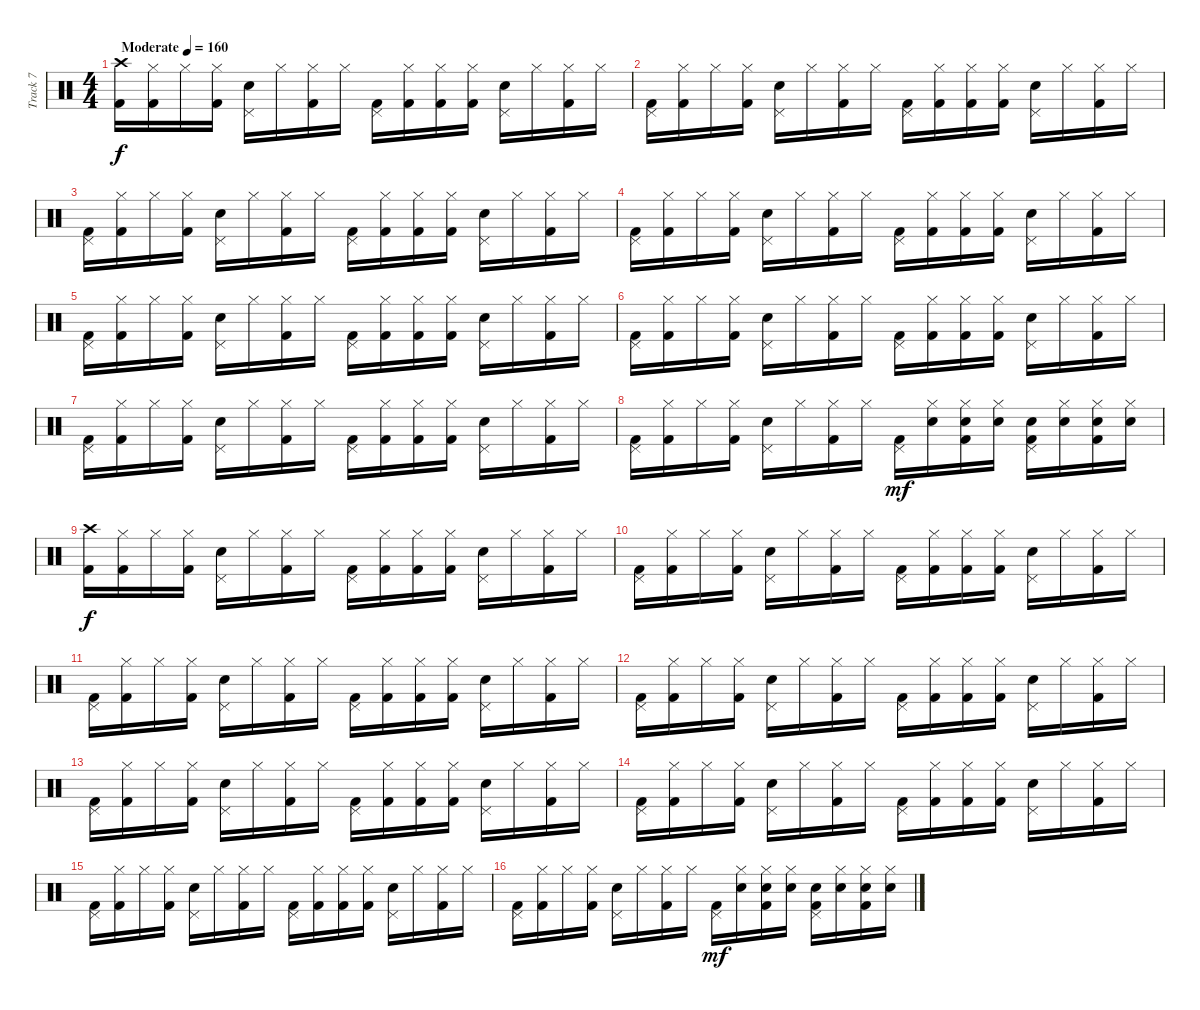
\track ("Track 7" "Track 7") {instrument percussion}
\staff {score}
\articulation defaults
\ts (4 4)
\tempo (160 "Moderate")
\clef neutral
\ks c
("Crash high (hit)" "Kick (hit) 2").16{dy f} ("Hi-Hat (closed)" "Kick (hit) 2").16 "Hi-Hat (closed)".16 ("Hi-Hat (closed)" "Kick (hit) 2").16 ("Pedal Hi-Hat (hit)" "Snare (hit) 2").16 "Hi-Hat (closed)".16 ("Hi-Hat (closed)" "Kick (hit) 2").16 "Hi-Hat (closed)".16 ("Pedal Hi-Hat (hit)" "Kick (hit) 2").16 ("Hi-Hat (closed)" "Kick (hit) 2").16 ("Hi-Hat (closed)" "Kick (hit) 2").16 ("Hi-Hat (closed)" "Kick (hit) 2").16 ("Pedal Hi-Hat (hit)" "Snare (hit) 2").16 "Hi-Hat (closed)".16 ("Hi-Hat (closed)" "Kick (hit) 2").16 "Hi-Hat (closed)".16 |
("Pedal Hi-Hat (hit)" "Kick (hit) 2").16 ("Hi-Hat (closed)" "Kick (hit) 2").16 "Hi-Hat (closed)".16 ("Hi-Hat (closed)" "Kick (hit) 2").16 ("Pedal Hi-Hat (hit)" "Snare (hit) 2").16 "Hi-Hat (closed)".16 ("Hi-Hat (closed)" "Kick (hit) 2").16 "Hi-Hat (closed)".16 ("Pedal Hi-Hat (hit)" "Kick (hit) 2").16 ("Hi-Hat (closed)" "Kick (hit) 2").16 ("Hi-Hat (closed)" "Kick (hit) 2").16 ("Hi-Hat (closed)" "Kick (hit) 2").16 ("Pedal Hi-Hat (hit)" "Snare (hit) 2").16 "Hi-Hat (closed)".16 ("Hi-Hat (closed)" "Kick (hit) 2").16 "Hi-Hat (closed)".16 |
("Pedal Hi-Hat (hit)" "Kick (hit) 2").16 ("Hi-Hat (closed)" "Kick (hit) 2").16 "Hi-Hat (closed)".16 ("Hi-Hat (closed)" "Kick (hit) 2").16 ("Pedal Hi-Hat (hit)" "Snare (hit) 2").16 "Hi-Hat (closed)".16 ("Hi-Hat (closed)" "Kick (hit) 2").16 "Hi-Hat (closed)".16 ("Pedal Hi-Hat (hit)" "Kick (hit) 2").16 ("Hi-Hat (closed)" "Kick (hit) 2").16 ("Hi-Hat (closed)" "Kick (hit) 2").16 ("Hi-Hat (closed)" "Kick (hit) 2").16 ("Pedal Hi-Hat (hit)" "Snare (hit) 2").16 "Hi-Hat (closed)".16 ("Hi-Hat (closed)" "Kick (hit) 2").16 "Hi-Hat (closed)".16 |
("Pedal Hi-Hat (hit)" "Kick (hit) 2").16 ("Hi-Hat (closed)" "Kick (hit) 2").16 "Hi-Hat (closed)".16 ("Hi-Hat (closed)" "Kick (hit) 2").16 ("Pedal Hi-Hat (hit)" "Snare (hit) 2").16 "Hi-Hat (closed)".16 ("Hi-Hat (closed)" "Kick (hit) 2").16 "Hi-Hat (closed)".16 ("Pedal Hi-Hat (hit)" "Kick (hit) 2").16 ("Hi-Hat (closed)" "Kick (hit) 2").16 ("Hi-Hat (closed)" "Kick (hit) 2").16 ("Hi-Hat (closed)" "Kick (hit) 2").16 ("Pedal Hi-Hat (hit)" "Snare (hit) 2").16 "Hi-Hat (closed)".16 ("Hi-Hat (closed)" "Kick (hit) 2").16 "Hi-Hat (closed)".16 |
("Pedal Hi-Hat (hit)" "Kick (hit) 2").16 ("Hi-Hat (closed)" "Kick (hit) 2").16 "Hi-Hat (closed)".16 ("Hi-Hat (closed)" "Kick (hit) 2").16 ("Pedal Hi-Hat (hit)" "Snare (hit) 2").16 "Hi-Hat (closed)".16 ("Hi-Hat (closed)" "Kick (hit) 2").16 "Hi-Hat (closed)".16 ("Pedal Hi-Hat (hit)" "Kick (hit) 2").16 ("Hi-Hat (closed)" "Kick (hit) 2").16 ("Hi-Hat (closed)" "Kick (hit) 2").16 ("Hi-Hat (closed)" "Kick (hit) 2").16 ("Pedal Hi-Hat (hit)" "Snare (hit) 2").16 "Hi-Hat (closed)".16 ("Hi-Hat (closed)" "Kick (hit) 2").16 "Hi-Hat (closed)".16 |
("Pedal Hi-Hat (hit)" "Kick (hit) 2").16 ("Hi-Hat (closed)" "Kick (hit) 2").16 "Hi-Hat (closed)".16 ("Hi-Hat (closed)" "Kick (hit) 2").16 ("Pedal Hi-Hat (hit)" "Snare (hit) 2").16 "Hi-Hat (closed)".16 ("Hi-Hat (closed)" "Kick (hit) 2").16 "Hi-Hat (closed)".16 ("Pedal Hi-Hat (hit)" "Kick (hit) 2").16 ("Hi-Hat (closed)" "Kick (hit) 2").16 ("Hi-Hat (closed)" "Kick (hit) 2").16 ("Hi-Hat (closed)" "Kick (hit) 2").16 ("Pedal Hi-Hat (hit)" "Snare (hit) 2").16 "Hi-Hat (closed)".16 ("Hi-Hat (closed)" "Kick (hit) 2").16 "Hi-Hat (closed)".16 |
("Pedal Hi-Hat (hit)" "Kick (hit) 2").16 ("Hi-Hat (closed)" "Kick (hit) 2").16 "Hi-Hat (closed)".16 ("Hi-Hat (closed)" "Kick (hit) 2").16 ("Pedal Hi-Hat (hit)" "Snare (hit) 2").16 "Hi-Hat (closed)".16 ("Hi-Hat (closed)" "Kick (hit) 2").16 "Hi-Hat (closed)".16 ("Pedal Hi-Hat (hit)" "Kick (hit) 2").16 ("Hi-Hat (closed)" "Kick (hit) 2").16 ("Hi-Hat (closed)" "Kick (hit) 2").16 ("Hi-Hat (closed)" "Kick (hit) 2").16 ("Pedal Hi-Hat (hit)" "Snare (hit) 2").16 "Hi-Hat (closed)".16 ("Hi-Hat (closed)" "Kick (hit) 2").16 "Hi-Hat (closed)".16 |
("Pedal Hi-Hat (hit)" "Kick (hit) 2").16 ("Hi-Hat (closed)" "Kick (hit) 2").16 "Hi-Hat (closed)".16 ("Hi-Hat (closed)" "Kick (hit) 2").16 ("Pedal Hi-Hat (hit)" "Snare (hit) 2").16 "Hi-Hat (closed)".16 ("Hi-Hat (closed)" "Kick (hit) 2").16 "Hi-Hat (closed)".16 ("Pedal Hi-Hat (hit)" "Kick (hit) 2").16{dy mf} ("Hi-Hat (closed)" "Snare (hit) 2").16 ("Hi-Hat (closed)" "Snare (hit) 2" "Kick (hit) 2").16 ("Hi-Hat (closed)" "Snare (hit) 2").16 ("Pedal Hi-Hat (hit)" "Snare (hit) 2" "Kick (hit) 2").16 ("Hi-Hat (closed)" "Snare (hit) 2").16 ("Hi-Hat (closed)" "Snare (hit) 2" "Kick (hit) 2").16 ("Hi-Hat (closed)" "Snare (hit) 2").16 |
("Crash high (hit)" "Kick (hit) 2").16{dy f} ("Hi-Hat (closed)" "Kick (hit) 2").16 "Hi-Hat (closed)".16 ("Hi-Hat (closed)" "Kick (hit) 2").16 ("Pedal Hi-Hat (hit)" "Snare (hit) 2").16 "Hi-Hat (closed)".16 ("Hi-Hat (closed)" "Kick (hit) 2").16 "Hi-Hat (closed)".16 ("Pedal Hi-Hat (hit)" "Kick (hit) 2").16 ("Hi-Hat (closed)" "Kick (hit) 2").16 ("Hi-Hat (closed)" "Kick (hit) 2").16 ("Hi-Hat (closed)" "Kick (hit) 2").16 ("Pedal Hi-Hat (hit)" "Snare (hit) 2").16 "Hi-Hat (closed)".16 ("Hi-Hat (closed)" "Kick (hit) 2").16 "Hi-Hat (closed)".16 |
("Pedal Hi-Hat (hit)" "Kick (hit) 2").16 ("Hi-Hat (closed)" "Kick (hit) 2").16 "Hi-Hat (closed)".16 ("Hi-Hat (closed)" "Kick (hit) 2").16 ("Pedal Hi-Hat (hit)" "Snare (hit) 2").16 "Hi-Hat (closed)".16 ("Hi-Hat (closed)" "Kick (hit) 2").16 "Hi-Hat (closed)".16 ("Pedal Hi-Hat (hit)" "Kick (hit) 2").16 ("Hi-Hat (closed)" "Kick (hit) 2").16 ("Hi-Hat (closed)" "Kick (hit) 2").16 ("Hi-Hat (closed)" "Kick (hit) 2").16 ("Pedal Hi-Hat (hit)" "Snare (hit) 2").16 "Hi-Hat (closed)".16 ("Hi-Hat (closed)" "Kick (hit) 2").16 "Hi-Hat (closed)".16 |
("Pedal Hi-Hat (hit)" "Kick (hit) 2").16 ("Hi-Hat (closed)" "Kick (hit) 2").16 "Hi-Hat (closed)".16 ("Hi-Hat (closed)" "Kick (hit) 2").16 ("Pedal Hi-Hat (hit)" "Snare (hit) 2").16 "Hi-Hat (closed)".16 ("Hi-Hat (closed)" "Kick (hit) 2").16 "Hi-Hat (closed)".16 ("Pedal Hi-Hat (hit)" "Kick (hit) 2").16 ("Hi-Hat (closed)" "Kick (hit) 2").16 ("Hi-Hat (closed)" "Kick (hit) 2").16 ("Hi-Hat (closed)" "Kick (hit) 2").16 ("Pedal Hi-Hat (hit)" "Snare (hit) 2").16 "Hi-Hat (closed)".16 ("Hi-Hat (closed)" "Kick (hit) 2").16 "Hi-Hat (closed)".16 |
("Pedal Hi-Hat (hit)" "Kick (hit) 2").16 ("Hi-Hat (closed)" "Kick (hit) 2").16 "Hi-Hat (closed)".16 ("Hi-Hat (closed)" "Kick (hit) 2").16 ("Pedal Hi-Hat (hit)" "Snare (hit) 2").16 "Hi-Hat (closed)".16 ("Hi-Hat (closed)" "Kick (hit) 2").16 "Hi-Hat (closed)".16 ("Pedal Hi-Hat (hit)" "Kick (hit) 2").16 ("Hi-Hat (closed)" "Kick (hit) 2").16 ("Hi-Hat (closed)" "Kick (hit) 2").16 ("Hi-Hat (closed)" "Kick (hit) 2").16 ("Pedal Hi-Hat (hit)" "Snare (hit) 2").16 "Hi-Hat (closed)".16 ("Hi-Hat (closed)" "Kick (hit) 2").16 "Hi-Hat (closed)".16 |
("Pedal Hi-Hat (hit)" "Kick (hit) 2").16 ("Hi-Hat (closed)" "Kick (hit) 2").16 "Hi-Hat (closed)".16 ("Hi-Hat (closed)" "Kick (hit) 2").16 ("Pedal Hi-Hat (hit)" "Snare (hit) 2").16 "Hi-Hat (closed)".16 ("Hi-Hat (closed)" "Kick (hit) 2").16 "Hi-Hat (closed)".16 ("Pedal Hi-Hat (hit)" "Kick (hit) 2").16 ("Hi-Hat (closed)" "Kick (hit) 2").16 ("Hi-Hat (closed)" "Kick (hit) 2").16 ("Hi-Hat (closed)" "Kick (hit) 2").16 ("Pedal Hi-Hat (hit)" "Snare (hit) 2").16 "Hi-Hat (closed)".16 ("Hi-Hat (closed)" "Kick (hit) 2").16 "Hi-Hat (closed)".16 |
("Pedal Hi-Hat (hit)" "Kick (hit) 2").16 ("Hi-Hat (closed)" "Kick (hit) 2").16 "Hi-Hat (closed)".16 ("Hi-Hat (closed)" "Kick (hit) 2").16 ("Pedal Hi-Hat (hit)" "Snare (hit) 2").16 "Hi-Hat (closed)".16 ("Hi-Hat (closed)" "Kick (hit) 2").16 "Hi-Hat (closed)".16 ("Pedal Hi-Hat (hit)" "Kick (hit) 2").16 ("Hi-Hat (closed)" "Kick (hit) 2").16 ("Hi-Hat (closed)" "Kick (hit) 2").16 ("Hi-Hat (closed)" "Kick (hit) 2").16 ("Pedal Hi-Hat (hit)" "Snare (hit) 2").16 "Hi-Hat (closed)".16 ("Hi-Hat (closed)" "Kick (hit) 2").16 "Hi-Hat (closed)".16 |
("Pedal Hi-Hat (hit)" "Kick (hit) 2").16 ("Hi-Hat (closed)" "Kick (hit) 2").16 "Hi-Hat (closed)".16 ("Hi-Hat (closed)" "Kick (hit) 2").16 ("Pedal Hi-Hat (hit)" "Snare (hit) 2").16 "Hi-Hat (closed)".16 ("Hi-Hat (closed)" "Kick (hit) 2").16 "Hi-Hat (closed)".16 ("Pedal Hi-Hat (hit)" "Kick (hit) 2").16 ("Hi-Hat (closed)" "Kick (hit) 2").16 ("Hi-Hat (closed)" "Kick (hit) 2").16 ("Hi-Hat (closed)" "Kick (hit) 2").16 ("Pedal Hi-Hat (hit)" "Snare (hit) 2").16 "Hi-Hat (closed)".16 ("Hi-Hat (closed)" "Kick (hit) 2").16 "Hi-Hat (closed)".16 |
("Pedal Hi-Hat (hit)" "Kick (hit) 2").16 ("Hi-Hat (closed)" "Kick (hit) 2").16 "Hi-Hat (closed)".16 ("Hi-Hat (closed)" "Kick (hit) 2").16 ("Pedal Hi-Hat (hit)" "Snare (hit) 2").16 "Hi-Hat (closed)".16 ("Hi-Hat (closed)" "Kick (hit) 2").16 "Hi-Hat (closed)".16 ("Pedal Hi-Hat (hit)" "Kick (hit) 2").16{dy mf} ("Hi-Hat (closed)" "Snare (hit) 2").16 ("Hi-Hat (closed)" "Snare (hit) 2" "Kick (hit) 2").16 ("Hi-Hat (closed)" "Snare (hit) 2").16 ("Pedal Hi-Hat (hit)" "Snare (hit) 2" "Kick (hit) 2").16 ("Hi-Hat (closed)" "Snare (hit) 2").16 ("Hi-Hat (closed)" "Snare (hit) 2" "Kick (hit) 2").16 ("Hi-Hat (closed)" "Snare (hit) 2").16
